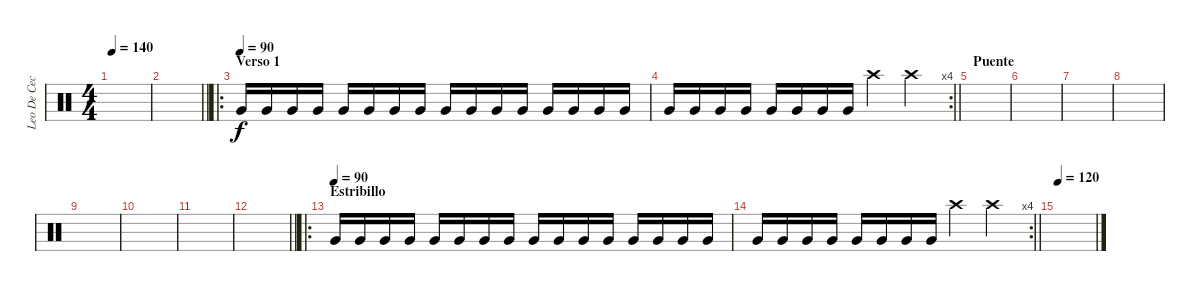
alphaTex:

\track ("Leo De Cecco" "Leo De Cec") {instrument percussion}
\staff {score}
\articulation defaults
\ts (4 4)
\tempo 140
\clef neutral
\ks c
|
\barLineRight lightlight
|
\ro
\section ("" "Verso 1")
\tempo (90)
"Very Low Tom (hit)".16 "Very Low Tom (hit)".16 "Very Low Tom (hit)".16 "Very Low Tom (hit)".16 "Very Low Tom (hit)".16 "Very Low Tom (hit)".16 "Very Low Tom (hit)".16 "Very Low Tom (hit)".16 "Very Low Tom (hit)".16 "Very Low Tom (hit)".16 "Very Low Tom (hit)".16 "Very Low Tom (hit)".16 "Very Low Tom (hit)".16 "Very Low Tom (hit)".16 "Very Low Tom (hit)".16 "Very Low Tom (hit)".16 |
\rc 4
\barLineRight lightlight "Very Low Tom (hit)".16 "Very Low Tom (hit)".16 "Very Low Tom (hit)".16 "Very Low Tom (hit)".16 "Very Low Tom (hit)".16 "Very Low Tom (hit)".16 "Very Low Tom (hit)".16 "Very Low Tom (hit)".16 "Crash high (hit)".4 "Crash high (hit)".4
|
\section ("" "Puente")
|
|
|
|
|
|
|
\barLineRight lightlight
|
\ro
\section ("" "Estribillo")
\tempo (90)
"Very Low Tom (hit)".16 "Very Low Tom (hit)".16 "Very Low Tom (hit)".16 "Very Low Tom (hit)".16 "Very Low Tom (hit)".16 "Very Low Tom (hit)".16 "Very Low Tom (hit)".16 "Very Low Tom (hit)".16 "Very Low Tom (hit)".16 "Very Low Tom (hit)".16 "Very Low Tom (hit)".16 "Very Low Tom (hit)".16 "Very Low Tom (hit)".16 "Very Low Tom (hit)".16 "Very Low Tom (hit)".16 "Very Low Tom (hit)".16 |
\rc 4
\barLineRight lightlight "Very Low Tom (hit)".16 "Very Low Tom (hit)".16 "Very Low Tom (hit)".16 "Very Low Tom (hit)".16 "Very Low Tom (hit)".16 "Very Low Tom (hit)".16 "Very Low Tom (hit)".16 "Very Low Tom (hit)".16 "Crash high (hit)".4 "Crash high (hit)".4
|
\section ("" "")
\tempo 120
